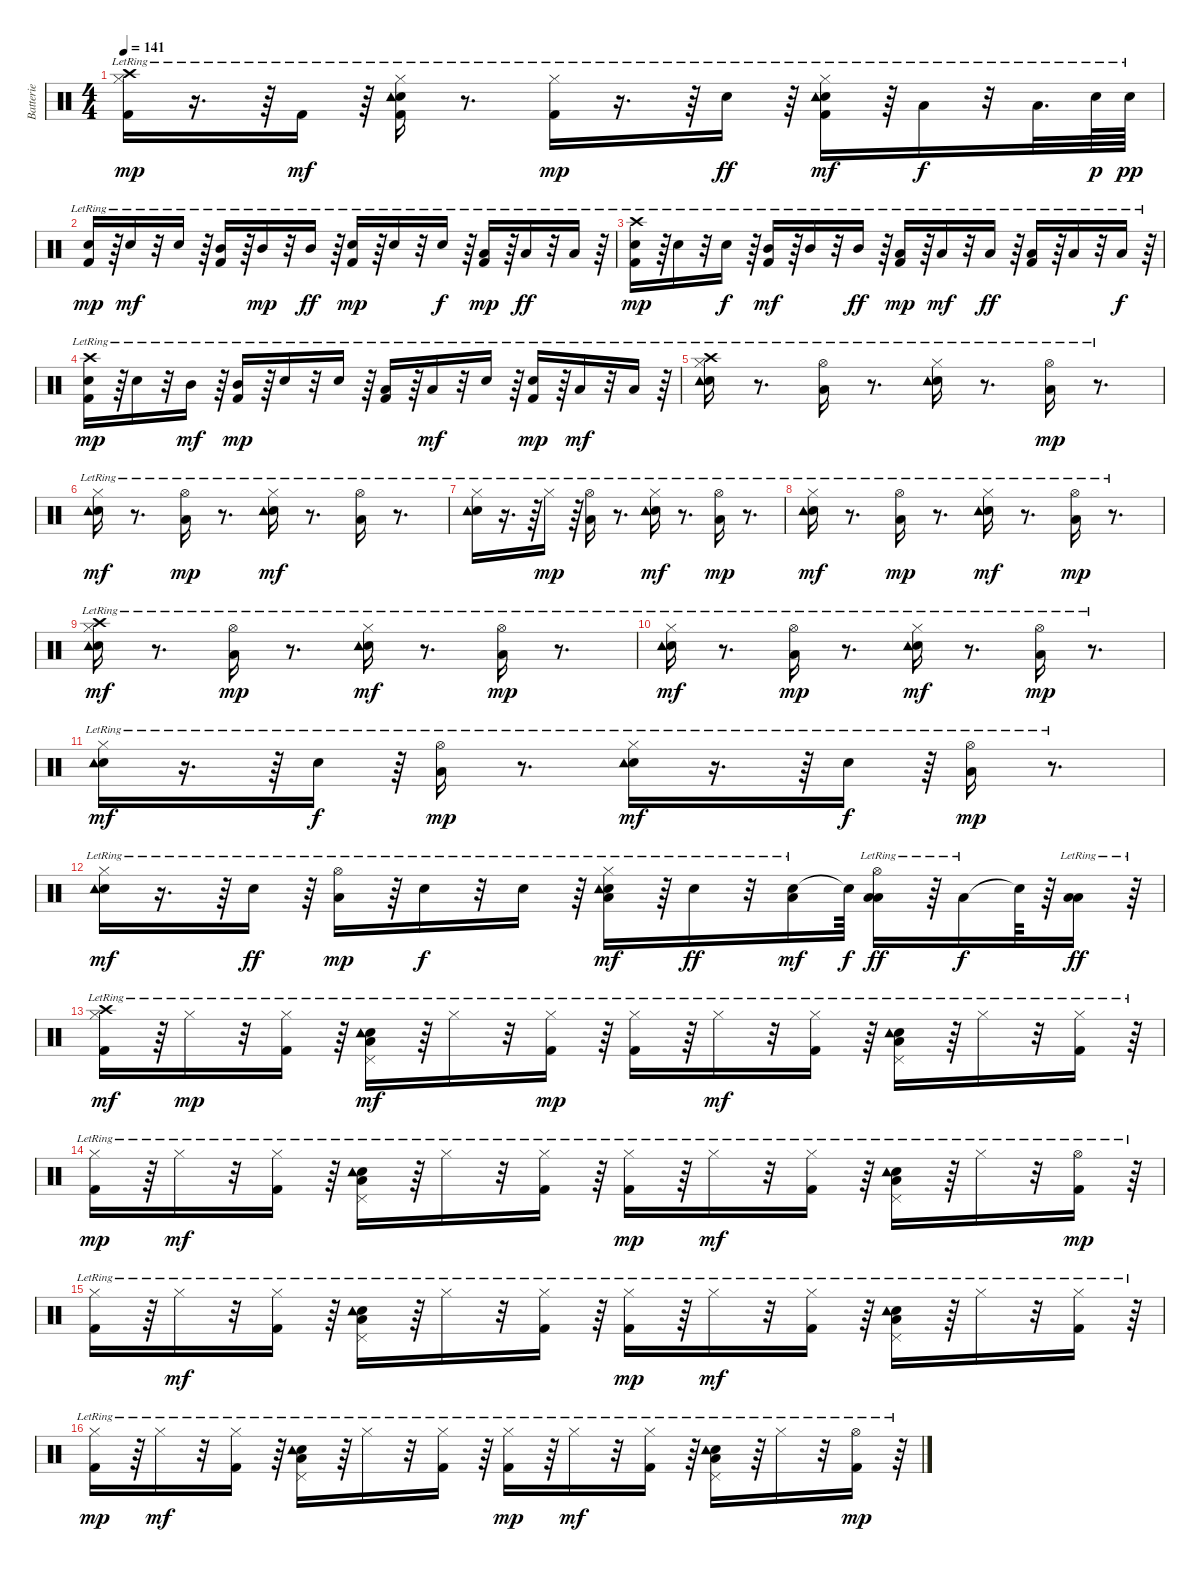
\track ("Batterie" "Batterie") {instrument percussion}
\staff {score}
\articulation defaults
\ts (4 4)
\tempo 141
\clef neutral
\ks c
("Hi-Hat (closed)"{lr} "Crash high (hit)"{lr} "Kick (hit) 2"{lr}).16{dy mp} r.16{d} r.64 "Kick (hit) 2"{lr}.16{dy mf} r.64 ("Hi-Hat (closed)"{lr} "Snare (hit) 2"{lr} "Kick (hit) 2"{lr} "Tambourine (hit)"{lr}).16 r.8{d} ("Hi-Hat (closed)"{lr} "Kick (hit) 2"{lr}).16{dy mp} r.16{d} r.64 "Snare (hit) 2"{lr}.16{dy ff} r.64 ("Hi-Hat (closed)"{lr} "Snare (hit) 2"{lr} "Kick (hit) 2"{lr} "Tambourine (hit)"{lr}).16{dy mf} r.64 "Low Tom (hit)"{lr}.16{dy f} r.32 "Low Floor Tom (hit)"{lr}.32{d} "Snare (hit) 2"{lr}.64{dy p} "Snare (hit) 2"{lr}.64{dy pp} |
("Snare (hit) 2"{lr} "Kick (hit) 2"{lr}).16{dy mp} r.64 "Snare (hit) 2"{lr}.16{dy mf} r.32 "Snare (hit) 2"{lr}.16 r.64 ("Kick (hit) 2"{lr} "Mid Tom (hit)"{lr}).16 r.64 "Mid Tom (hit)"{lr}.16{dy mp} r.32 "Mid Tom (hit)"{lr}.16{dy ff} r.64 ("Snare (hit) 2"{lr} "Kick (hit) 2"{lr}).16{dy mp} r.64 "Snare (hit) 2"{lr}.16 r.32 "Snare (hit) 2"{lr}.16{dy f} r.64 ("Low Tom (hit)"{lr} "Kick (hit) 2"{lr}).16{dy mp} r.64 "Low Tom (hit)"{lr}.16{dy ff} r.32 "Low Tom (hit)"{lr}.16 r.64 |
("Crash high (hit)"{lr} "Snare (hit) 2"{lr} "Kick (hit) 2"{lr}).16{dy mp} r.64 "Snare (hit) 2"{lr}.16 r.32 "Snare (hit) 2"{lr}.16{dy f} r.64 ("Kick (hit) 2"{lr} "Mid Tom (hit)"{lr}).16{dy mf} r.64 "Mid Tom (hit)"{lr}.16 r.32 "Mid Tom (hit)"{lr}.16{dy ff} r.64 ("Low Tom (hit)"{lr} "Kick (hit) 2"{lr}).16{dy mp} r.64 "Low Tom (hit)"{lr}.16{dy mf} r.32 "Low Tom (hit)"{lr}.16{dy ff} r.64 ("Kick (hit) 2"{lr} "Low Floor Tom (hit)"{lr}).16 r.64 "Low Floor Tom (hit)"{lr}.16 r.32 "Low Floor Tom (hit)"{lr}.16{dy f} r.64 |
("Crash high (hit)"{lr} "Snare (hit) 2"{lr} "Kick (hit) 2"{lr}).16{dy mp} r.64 "Snare (hit) 2"{lr}.16 r.32 "Mid Tom (hit)"{lr}.16{dy mf} r.64 ("Kick (hit) 2"{lr} "Mid Tom (hit)"{lr}).16{dy mp} r.64 "Snare (hit) 2"{lr}.16 r.32 "Snare (hit) 2"{lr}.16 r.64 ("Low Tom (hit)"{lr} "Kick (hit) 2"{lr}).16 r.64 "Low Tom (hit)"{lr}.16{dy mf} r.32 "Snare (hit) 2"{lr}.16 r.64 ("Snare (hit) 2"{lr} "Kick (hit) 2"{lr}).16{dy mp} r.64 "Low Floor Tom (hit)"{lr}.16{dy mf} r.32 "Low Floor Tom (hit)"{lr}.16 r.64 |
("Hi-Hat (closed)"{lr} "Crash high (hit)"{lr} "Snare (hit) 2"{lr} "Tambourine (hit)"{lr}).16 r.8{d} ("Hi-Hat (open)"{lr} "Low Floor Tom (hit)"{lr}).16 r.8{d} ("Hi-Hat (closed)"{lr} "Snare (hit) 2"{lr} "Tambourine (hit)"{lr}).16 r.8{d} ("Hi-Hat (open)"{lr} "Low Floor Tom (hit)"{lr}).16{dy mp} r.8{d} |
("Hi-Hat (closed)"{lr} "Snare (hit) 2"{lr} "Tambourine (hit)"{lr}).16{dy mf} r.8{d} ("Hi-Hat (open)"{lr} "Low Floor Tom (hit)"{lr}).16{dy mp} r.8{d} ("Hi-Hat (closed)"{lr} "Snare (hit) 2"{lr} "Tambourine (hit)"{lr}).16{dy mf} r.8{d} ("Hi-Hat (open)"{lr} "Low Floor Tom (hit)"{lr}).16 r.8{d} |
("Hi-Hat (closed)"{lr} "Snare (hit) 2"{lr} "Tambourine (hit)"{lr}).16 r.16{d} r.64 "Hi-Hat (closed)"{lr}.16{dy mp} r.64 ("Hi-Hat (open)"{lr} "Low Floor Tom (hit)"{lr}).16 r.8{d} ("Hi-Hat (closed)"{lr} "Snare (hit) 2"{lr} "Tambourine (hit)"{lr}).16{dy mf} r.8{d} ("Hi-Hat (open)"{lr} "Low Floor Tom (hit)"{lr}).16{dy mp} r.8{d} |
("Hi-Hat (closed)"{lr} "Snare (hit) 2"{lr} "Tambourine (hit)"{lr}).16{dy mf} r.8{d} ("Hi-Hat (open)"{lr} "Low Floor Tom (hit)"{lr}).16{dy mp} r.8{d} ("Hi-Hat (closed)"{lr} "Snare (hit) 2"{lr} "Tambourine (hit)"{lr}).16{dy mf} r.8{d} ("Hi-Hat (open)"{lr} "Low Floor Tom (hit)"{lr}).16{dy mp} r.8{d} |
("Hi-Hat (closed)"{lr} "Crash high (hit)"{lr} "Snare (hit) 2"{lr} "Tambourine (hit)"{lr}).16{dy mf} r.8{d} ("Hi-Hat (open)"{lr} "Low Floor Tom (hit)"{lr}).16{dy mp} r.8{d} ("Hi-Hat (closed)"{lr} "Snare (hit) 2"{lr} "Tambourine (hit)"{lr}).16{dy mf} r.8{d} ("Hi-Hat (open)"{lr} "Low Floor Tom (hit)"{lr}).16{dy mp} r.8{d} |
("Hi-Hat (closed)"{lr} "Snare (hit) 2"{lr} "Tambourine (hit)"{lr}).16{dy mf} r.8{d} ("Hi-Hat (open)"{lr} "Low Floor Tom (hit)"{lr}).16{dy mp} r.8{d} ("Hi-Hat (closed)"{lr} "Snare (hit) 2"{lr} "Tambourine (hit)"{lr}).16{dy mf} r.8{d} ("Hi-Hat (open)"{lr} "Low Floor Tom (hit)"{lr}).16{dy mp} r.8{d} |
("Hi-Hat (closed)"{lr} "Snare (hit) 2"{lr} "Tambourine (hit)"{lr}).16{dy mf} r.16{d} r.64 "Snare (hit) 2"{lr}.16{dy f} r.64 ("Hi-Hat (open)"{lr} "Low Floor Tom (hit)"{lr}).16{dy mp} r.8{d} ("Hi-Hat (closed)"{lr} "Snare (hit) 2"{lr} "Tambourine (hit)"{lr}).16{dy mf} r.16{d} r.64 "Snare (hit) 2"{lr}.16{dy f} r.64 ("Hi-Hat (open)"{lr} "Low Floor Tom (hit)"{lr}).16{dy mp} r.8{d} |
("Hi-Hat (closed)"{lr} "Snare (hit) 2"{lr} "Tambourine (hit)"{lr}).16{dy mf} r.16{d} r.64 "Snare (hit) 2"{lr}.16{dy ff} r.64 ("Hi-Hat (open)"{lr} "Low Floor Tom (hit)"{lr}).16{dy mp} r.64 "Snare (hit) 2"{lr}.16{dy f} r.32 "Snare (hit) 2"{lr}.16 r.64 ("Hi-Hat (closed)"{lr} "Snare (hit) 2"{lr} "Low Floor Tom (hit)"{lr} "Tambourine (hit)"{lr}).16{dy mf} r.64 "Snare (hit) 2"{lr}.16{dy ff} r.32 ("Snare (hit) 2"{lr} "Low Floor Tom (hit)"{lr}).16{dy mf} "Snare (hit)"{t}.64{dy f} ("Hi-Hat (open)"{lr} "Low Floor Tom (hit)"{lr} "Low Floor Tom (hit)"{lr}).16{dy ff} r.64 "Low Floor Tom (hit)"{lr}.16{dy f} "Snare (hit)"{t}.64 r.64 ("Low Floor Tom (hit)"{lr} "Low Floor Tom (hit)"{lr}).16{dy ff} r.64 |
("Hi-Hat (closed)"{lr} "Crash high (hit)"{lr} "Kick (hit) 2"{lr}).16{dy mf} r.64 "Hi-Hat (closed)"{lr}.16{dy mp} r.32 ("Hi-Hat (closed)"{lr} "Kick (hit) 2"{lr}).16 r.64 ("Pedal Hi-Hat (hit)"{lr} "Snare (hit) 2"{lr} "Low Floor Tom (hit)"{lr} "Tambourine (hit)"{lr}).16{dy mf} r.64 "Hi-Hat (closed)"{lr}.16 r.32 ("Hi-Hat (closed)"{lr} "Kick (hit) 2"{lr}).16{dy mp} r.64 ("Hi-Hat (closed)"{lr} "Kick (hit) 2"{lr}).16 r.64 "Hi-Hat (closed)"{lr}.16{dy mf} r.32 ("Hi-Hat (closed)"{lr} "Kick (hit) 2"{lr}).16 r.64 ("Pedal Hi-Hat (hit)"{lr} "Snare (hit) 2"{lr} "Low Floor Tom (hit)"{lr} "Tambourine (hit)"{lr}).16 r.64 "Hi-Hat (closed)"{lr}.16 r.32 ("Hi-Hat (closed)"{lr} "Kick (hit) 2"{lr}).16 r.64 |
("Hi-Hat (closed)"{lr} "Kick (hit) 2"{lr}).16{dy mp} r.64 "Hi-Hat (closed)"{lr}.16{dy mf} r.32 ("Hi-Hat (closed)"{lr} "Kick (hit) 2"{lr}).16 r.64 ("Pedal Hi-Hat (hit)"{lr} "Snare (hit) 2"{lr} "Low Floor Tom (hit)"{lr} "Tambourine (hit)"{lr}).16 r.64 "Hi-Hat (closed)"{lr}.16 r.32 ("Hi-Hat (closed)"{lr} "Kick (hit) 2"{lr}).16 r.64 ("Hi-Hat (closed)"{lr} "Kick (hit) 2"{lr}).16{dy mp} r.64 "Hi-Hat (closed)"{lr}.16{dy mf} r.32 ("Hi-Hat (closed)"{lr} "Kick (hit) 2"{lr}).16 r.64 ("Pedal Hi-Hat (hit)"{lr} "Snare (hit) 2"{lr} "Low Floor Tom (hit)"{lr} "Tambourine (hit)"{lr}).16 r.64 "Hi-Hat (closed)"{lr}.16 r.32 ("Hi-Hat (open)"{lr} "Kick (hit) 2"{lr}).16{dy mp} r.64 |
("Hi-Hat (closed)"{lr} "Kick (hit) 2"{lr}).16 r.64 "Hi-Hat (closed)"{lr}.16{dy mf} r.32 ("Hi-Hat (closed)"{lr} "Kick (hit) 2"{lr}).16 r.64 ("Pedal Hi-Hat (hit)"{lr} "Snare (hit) 2"{lr} "Low Floor Tom (hit)"{lr} "Tambourine (hit)"{lr}).16 r.64 "Hi-Hat (closed)"{lr}.16 r.32 ("Hi-Hat (closed)"{lr} "Kick (hit) 2"{lr}).16 r.64 ("Hi-Hat (closed)"{lr} "Kick (hit) 2"{lr}).16{dy mp} r.64 "Hi-Hat (closed)"{lr}.16{dy mf} r.32 ("Hi-Hat (closed)"{lr} "Kick (hit) 2"{lr}).16 r.64 ("Pedal Hi-Hat (hit)"{lr} "Snare (hit) 2"{lr} "Low Floor Tom (hit)"{lr} "Tambourine (hit)"{lr}).16 r.64 "Hi-Hat (closed)"{lr}.16 r.32 ("Hi-Hat (closed)"{lr} "Kick (hit) 2"{lr}).16 r.64 |
("Hi-Hat (closed)"{lr} "Kick (hit) 2"{lr}).16{dy mp} r.64 "Hi-Hat (closed)"{lr}.16{dy mf} r.32 ("Hi-Hat (closed)"{lr} "Kick (hit) 2"{lr}).16 r.64 ("Pedal Hi-Hat (hit)"{lr} "Snare (hit) 2"{lr} "Low Floor Tom (hit)"{lr} "Tambourine (hit)"{lr}).16 r.64 "Hi-Hat (closed)"{lr}.16 r.32 ("Hi-Hat (closed)"{lr} "Kick (hit) 2"{lr}).16 r.64 ("Hi-Hat (closed)"{lr} "Kick (hit) 2"{lr}).16{dy mp} r.64 "Hi-Hat (closed)"{lr}.16{dy mf} r.32 ("Hi-Hat (closed)"{lr} "Kick (hit) 2"{lr}).16 r.64 ("Pedal Hi-Hat (hit)"{lr} "Snare (hit) 2"{lr} "Low Floor Tom (hit)"{lr} "Tambourine (hit)"{lr}).16 r.64 "Hi-Hat (closed)"{lr}.16 r.32 ("Hi-Hat (open)"{lr} "Kick (hit) 2"{lr}).16{dy mp} r.64
